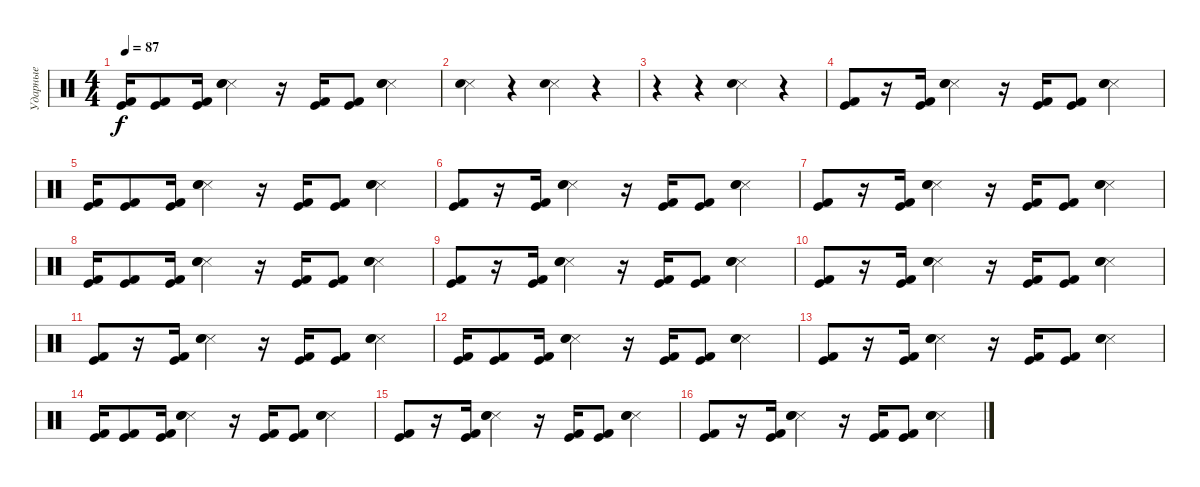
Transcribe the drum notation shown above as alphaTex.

\track ("Ударные" "Ударные") {instrument percussion}
\staff {score}
\articulation defaults
\ts (4 4)
\tempo 87
\clef neutral
\ks c
("Kick (hit) 2" "Kick (hit)").16{dy f} ("Kick (hit) 2" "Kick (hit)").8 ("Kick (hit) 2" "Kick (hit)").16 ("Snare (side stick) 3" "Electric Snare (hit)" "Electric Snare (hit)").4 r.16 ("Kick (hit)" "Kick (hit) 2").16 ("Kick (hit)" "Kick (hit) 2").8 ("Snare (side stick) 3" "Electric Snare (hit)" "Electric Snare (hit)").4 |
("Snare (side stick) 3" "Electric Snare (hit)").4 r.4 ("Snare (side stick) 3" "Electric Snare (hit)").4 r.4 |
r.4 r.4 ("Snare (side stick) 3" "Electric Snare (hit)").4 r.4 |
("Kick (hit) 2" "Kick (hit)").8 r.16 ("Kick (hit) 2" "Kick (hit)").16 ("Snare (side stick) 3" "Electric Snare (hit)" "Electric Snare (hit)").4 r.16 ("Kick (hit)" "Kick (hit) 2").16 ("Kick (hit)" "Kick (hit) 2").8 ("Snare (side stick) 3" "Electric Snare (hit)" "Electric Snare (hit)").4 |
("Kick (hit) 2" "Kick (hit)").16 ("Kick (hit) 2" "Kick (hit)").8 ("Kick (hit) 2" "Kick (hit)").16 ("Snare (side stick) 3" "Electric Snare (hit)" "Electric Snare (hit)").4 r.16 ("Kick (hit)" "Kick (hit) 2").16 ("Kick (hit)" "Kick (hit) 2").8 ("Snare (side stick) 3" "Electric Snare (hit)" "Electric Snare (hit)").4 |
("Kick (hit) 2" "Kick (hit)").8 r.16 ("Kick (hit) 2" "Kick (hit)").16 ("Snare (side stick) 3" "Electric Snare (hit)" "Electric Snare (hit)").4 r.16 ("Kick (hit)" "Kick (hit) 2").16 ("Kick (hit)" "Kick (hit) 2").8 ("Snare (side stick) 3" "Electric Snare (hit)" "Electric Snare (hit)").4 |
("Kick (hit) 2" "Kick (hit)").8 r.16 ("Kick (hit) 2" "Kick (hit)").16 ("Snare (side stick) 3" "Electric Snare (hit)" "Electric Snare (hit)").4 r.16 ("Kick (hit)" "Kick (hit) 2").16 ("Kick (hit)" "Kick (hit) 2").8 ("Snare (side stick) 3" "Electric Snare (hit)" "Electric Snare (hit)").4 |
("Kick (hit) 2" "Kick (hit)").16 ("Kick (hit) 2" "Kick (hit)").8 ("Kick (hit) 2" "Kick (hit)").16 ("Snare (side stick) 3" "Electric Snare (hit)" "Electric Snare (hit)").4 r.16 ("Kick (hit)" "Kick (hit) 2").16 ("Kick (hit)" "Kick (hit) 2").8 ("Snare (side stick) 3" "Electric Snare (hit)" "Electric Snare (hit)").4 |
("Kick (hit) 2" "Kick (hit)").8 r.16 ("Kick (hit) 2" "Kick (hit)").16 ("Snare (side stick) 3" "Electric Snare (hit)" "Electric Snare (hit)").4 r.16 ("Kick (hit)" "Kick (hit) 2").16 ("Kick (hit)" "Kick (hit) 2").8 ("Snare (side stick) 3" "Electric Snare (hit)" "Electric Snare (hit)").4 |
("Kick (hit) 2" "Kick (hit)").8 r.16 ("Kick (hit) 2" "Kick (hit)").16 ("Snare (side stick) 3" "Electric Snare (hit)" "Electric Snare (hit)").4 r.16 ("Kick (hit)" "Kick (hit) 2").16 ("Kick (hit)" "Kick (hit) 2").8 ("Snare (side stick) 3" "Electric Snare (hit)" "Electric Snare (hit)").4 |
("Kick (hit) 2" "Kick (hit)").8 r.16 ("Kick (hit) 2" "Kick (hit)").16 ("Snare (side stick) 3" "Electric Snare (hit)" "Electric Snare (hit)").4 r.16 ("Kick (hit)" "Kick (hit) 2").16 ("Kick (hit)" "Kick (hit) 2").8 ("Snare (side stick) 3" "Electric Snare (hit)" "Electric Snare (hit)").4 |
("Kick (hit) 2" "Kick (hit)").16 ("Kick (hit) 2" "Kick (hit)").8 ("Kick (hit) 2" "Kick (hit)").16 ("Snare (side stick) 3" "Electric Snare (hit)" "Electric Snare (hit)").4 r.16 ("Kick (hit)" "Kick (hit) 2").16 ("Kick (hit)" "Kick (hit) 2").8 ("Snare (side stick) 3" "Electric Snare (hit)" "Electric Snare (hit)").4 |
("Kick (hit) 2" "Kick (hit)").8 r.16 ("Kick (hit) 2" "Kick (hit)").16 ("Snare (side stick) 3" "Electric Snare (hit)" "Electric Snare (hit)").4 r.16 ("Kick (hit)" "Kick (hit) 2").16 ("Kick (hit)" "Kick (hit) 2").8 ("Snare (side stick) 3" "Electric Snare (hit)" "Electric Snare (hit)").4 |
("Kick (hit) 2" "Kick (hit)").16 ("Kick (hit) 2" "Kick (hit)").8 ("Kick (hit) 2" "Kick (hit)").16 ("Snare (side stick) 3" "Electric Snare (hit)" "Electric Snare (hit)").4 r.16 ("Kick (hit)" "Kick (hit) 2").16 ("Kick (hit)" "Kick (hit) 2").8 ("Snare (side stick) 3" "Electric Snare (hit)" "Electric Snare (hit)").4 |
("Kick (hit) 2" "Kick (hit)").8 r.16 ("Kick (hit) 2" "Kick (hit)").16 ("Snare (side stick) 3" "Electric Snare (hit)" "Electric Snare (hit)").4 r.16 ("Kick (hit)" "Kick (hit) 2").16 ("Kick (hit)" "Kick (hit) 2").8 ("Snare (side stick) 3" "Electric Snare (hit)" "Electric Snare (hit)").4 |
("Kick (hit) 2" "Kick (hit)").8 r.16 ("Kick (hit) 2" "Kick (hit)").16 ("Snare (side stick) 3" "Electric Snare (hit)" "Electric Snare (hit)").4 r.16 ("Kick (hit)" "Kick (hit) 2").16 ("Kick (hit)" "Kick (hit) 2").8 ("Snare (side stick) 3" "Electric Snare (hit)" "Electric Snare (hit)").4
